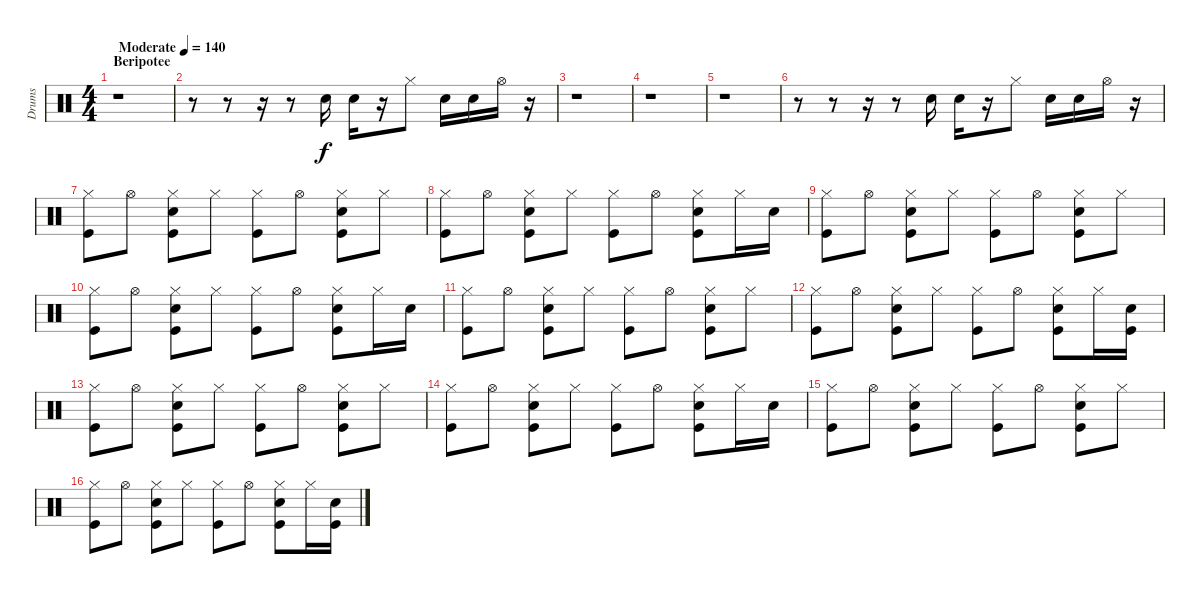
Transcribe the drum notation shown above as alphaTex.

\track ("Drums" "Drums") {instrument percussion}
\staff {score}
\articulation defaults
\ts (4 4)
\section ("" "Beripotee")
\tempo (140 "Moderate")
\clef neutral
\ks c
r.1{dy f} |
r.8 r.8 r.16 r.8 "Snare (hit) 2".16 "Snare (hit) 2".16 r.16 "Hi-Hat (closed)".8 "Snare (hit) 2".16 "Snare (hit) 2".16 "Hi-Hat (open)".16 r.16 |
r.1 |
r.1 |
r.1 |
r.8 r.8 r.16 r.8 "Snare (hit) 2".16 "Snare (hit) 2".16 r.16 "Hi-Hat (closed)".8 "Snare (hit) 2".16 "Snare (hit) 2".16 "Hi-Hat (open)".16 r.16 |
("Hi-Hat (closed)" "Kick (hit)").8 "Hi-Hat (open)".8 ("Hi-Hat (closed)" "Snare (hit) 2" "Kick (hit)").8 "Hi-Hat (closed)".8 ("Hi-Hat (closed)" "Kick (hit)").8 "Hi-Hat (open)".8 ("Hi-Hat (closed)" "Snare (hit) 2" "Kick (hit)").8 "Hi-Hat (closed)".8 |
("Hi-Hat (closed)" "Kick (hit)").8 "Hi-Hat (open)".8 ("Hi-Hat (closed)" "Snare (hit) 2" "Kick (hit)").8 "Hi-Hat (closed)".8 ("Hi-Hat (closed)" "Kick (hit)").8 "Hi-Hat (open)".8 ("Hi-Hat (closed)" "Snare (hit) 2" "Kick (hit)").8 "Hi-Hat (closed)".16 "Snare (hit) 2".16 |
("Hi-Hat (closed)" "Kick (hit)").8 "Hi-Hat (open)".8 ("Hi-Hat (closed)" "Snare (hit) 2" "Kick (hit)").8 "Hi-Hat (closed)".8 ("Hi-Hat (closed)" "Kick (hit)").8 "Hi-Hat (open)".8 ("Hi-Hat (closed)" "Snare (hit) 2" "Kick (hit)").8 "Hi-Hat (closed)".8 |
("Hi-Hat (closed)" "Kick (hit)").8 "Hi-Hat (open)".8 ("Hi-Hat (closed)" "Snare (hit) 2" "Kick (hit)").8 "Hi-Hat (closed)".8 ("Hi-Hat (closed)" "Kick (hit)").8 "Hi-Hat (open)".8 ("Hi-Hat (closed)" "Snare (hit) 2" "Kick (hit)").8 "Hi-Hat (closed)".16 "Snare (hit) 2".16 |
("Hi-Hat (closed)" "Kick (hit)").8 "Hi-Hat (open)".8 ("Hi-Hat (closed)" "Snare (hit) 2" "Kick (hit)").8 "Hi-Hat (closed)".8 ("Hi-Hat (closed)" "Kick (hit)").8 "Hi-Hat (open)".8 ("Hi-Hat (closed)" "Snare (hit) 2" "Kick (hit)").8 "Hi-Hat (closed)".8 |
("Hi-Hat (closed)" "Kick (hit)").8 "Hi-Hat (open)".8 ("Hi-Hat (closed)" "Snare (hit) 2" "Kick (hit)").8 "Hi-Hat (closed)".8 ("Hi-Hat (closed)" "Kick (hit)").8 "Hi-Hat (open)".8 ("Hi-Hat (closed)" "Snare (hit) 2" "Kick (hit)").8 "Hi-Hat (closed)".16 ("Snare (hit) 2" "Kick (hit)").16 |
("Hi-Hat (closed)" "Kick (hit)").8 "Hi-Hat (open)".8 ("Hi-Hat (closed)" "Snare (hit) 2" "Kick (hit)").8 "Hi-Hat (closed)".8 ("Hi-Hat (closed)" "Kick (hit)").8 "Hi-Hat (open)".8 ("Hi-Hat (closed)" "Snare (hit) 2" "Kick (hit)").8 "Hi-Hat (closed)".8 |
("Hi-Hat (closed)" "Kick (hit)").8 "Hi-Hat (open)".8 ("Hi-Hat (closed)" "Snare (hit) 2" "Kick (hit)").8 "Hi-Hat (closed)".8 ("Hi-Hat (closed)" "Kick (hit)").8 "Hi-Hat (open)".8 ("Hi-Hat (closed)" "Snare (hit) 2" "Kick (hit)").8 "Hi-Hat (closed)".16 "Snare (hit) 2".16 |
("Hi-Hat (closed)" "Kick (hit)").8 "Hi-Hat (open)".8 ("Hi-Hat (closed)" "Snare (hit) 2" "Kick (hit)").8 "Hi-Hat (closed)".8 ("Hi-Hat (closed)" "Kick (hit)").8 "Hi-Hat (open)".8 ("Hi-Hat (closed)" "Snare (hit) 2" "Kick (hit)").8 "Hi-Hat (closed)".8 |
("Hi-Hat (closed)" "Kick (hit)").8 "Hi-Hat (open)".8 ("Hi-Hat (closed)" "Snare (hit) 2" "Kick (hit)").8 "Hi-Hat (closed)".8 ("Hi-Hat (closed)" "Kick (hit)").8 "Hi-Hat (open)".8 ("Hi-Hat (closed)" "Snare (hit) 2" "Kick (hit)").8 "Hi-Hat (closed)".16 ("Snare (hit) 2" "Kick (hit)").16
